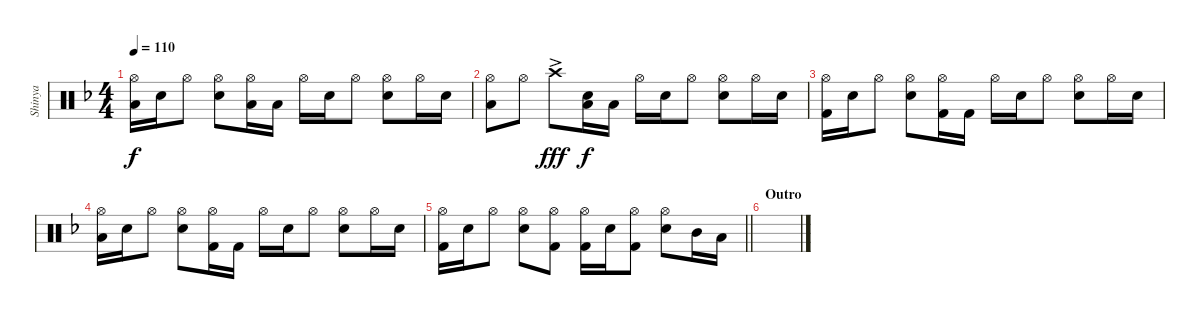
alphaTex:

\track ("Shinya" "Shinya") {instrument percussion}
\staff {score}
\articulation defaults
\ts (4 4)
\tempo 110
\clef neutral
\ks f
("Hi-Hat (open)" "Low Floor Tom (hit)").16{dy f} "Snare (hit) 2".16 "Hi-Hat (open)".8 ("Hi-Hat (open)" "Snare (hit) 2").8 ("Hi-Hat (open)" "Low Floor Tom (hit)").16 "Low Floor Tom (hit)".16 "Hi-Hat (open)".16 "Snare (hit) 2".16 "Hi-Hat (open)".8 ("Hi-Hat (open)" "Snare (hit) 2").8 "Hi-Hat (open)".16 "Snare (hit) 2".16 |
("Hi-Hat (open)" "Low Floor Tom (hit)").8 "Hi-Hat (open)".8 "Crash high (hit)"{ac}.8{dy fff} ("Snare (hit) 2" "Low Floor Tom (hit)").16{dy f} "Low Floor Tom (hit)".16 "Hi-Hat (open)".16 "Snare (hit) 2".16 "Hi-Hat (open)".8 ("Hi-Hat (open)" "Snare (hit) 2").8 "Hi-Hat (open)".16 "Snare (hit) 2".16 |
("Hi-Hat (open)" "Kick (hit) 2").16 "Snare (hit) 2".16 "Hi-Hat (open)".8 ("Hi-Hat (open)" "Snare (hit) 2").8 ("Hi-Hat (open)" "Kick (hit) 2").16 "Kick (hit) 2".16 "Hi-Hat (open)".16 "Snare (hit) 2".16 "Hi-Hat (open)".8 ("Hi-Hat (open)" "Snare (hit) 2").8 "Hi-Hat (open)".16 "Snare (hit) 2".16 |
("Hi-Hat (open)" "Low Floor Tom (hit)").16 "Snare (hit) 2".16 "Hi-Hat (open)".8 ("Hi-Hat (open)" "Snare (hit) 2").8 ("Hi-Hat (open)" "Kick (hit) 2").16 "Kick (hit) 2".16 "Hi-Hat (open)".16 "Snare (hit) 2".16 "Hi-Hat (open)".8 ("Hi-Hat (open)" "Snare (hit) 2").8 "Hi-Hat (open)".16 "Snare (hit) 2".16 |
\barLineRight lightlight
("Hi-Hat (open)" "Kick (hit) 2").16 "Snare (hit) 2".16 "Hi-Hat (open)".8 ("Hi-Hat (open)" "Snare (hit) 2").8 ("Hi-Hat (open)" "Kick (hit) 2").8 ("Hi-Hat (open)" "Kick (hit) 2").16 "Snare (hit) 2".16 ("Hi-Hat (open)" "Kick (hit) 2").8 ("Hi-Hat (open)" "Snare (hit) 2").8 "Mid Tom (hit)".16 "Low Tom (hit)".16 |
\section ("" "Outro")
